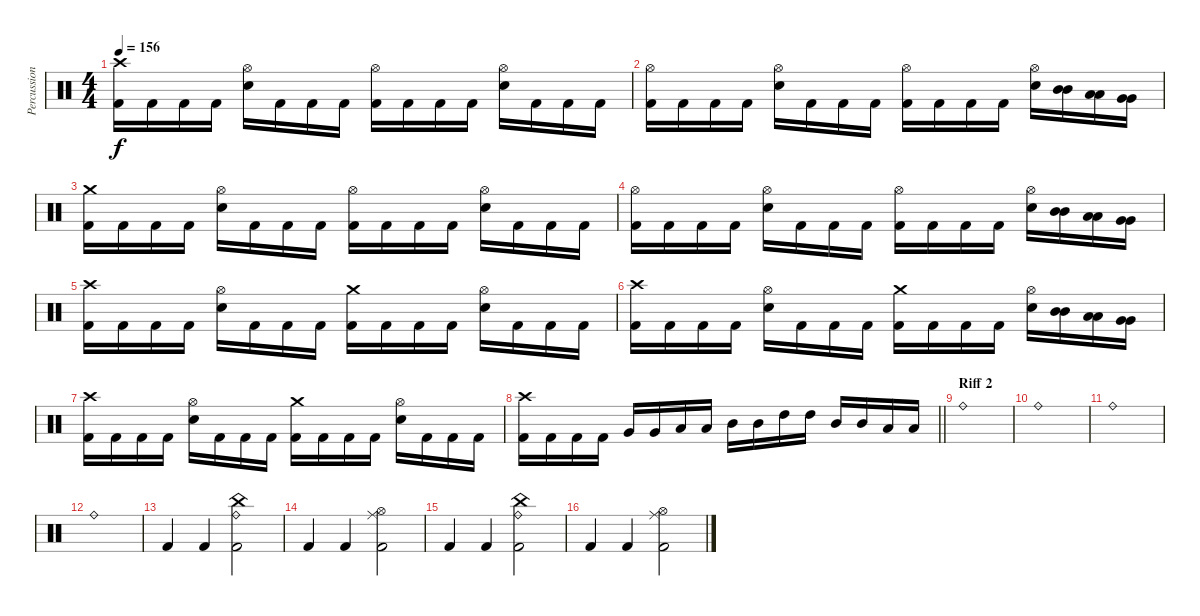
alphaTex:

\track ("Percussion" "Percussion") {instrument percussion}
\staff {score}
\articulation defaults
\ts (4 4)
\tempo 156
\clef neutral
\ks c
("Crash high (hit)" "Kick (hit) 2").16{dy f} "Kick (hit) 2".16 "Kick (hit) 2".16 "Kick (hit) 2".16 ("Hi-Hat (open)" "Snare (hit) 2").16 "Kick (hit) 2".16 "Kick (hit) 2".16 "Kick (hit) 2".16 ("Hi-Hat (open)" "Kick (hit) 2").16 "Kick (hit) 2".16 "Kick (hit) 2".16 "Kick (hit) 2".16 ("Hi-Hat (open)" "Snare (hit) 2").16 "Kick (hit) 2".16 "Kick (hit) 2".16 "Kick (hit) 2".16 |
("Hi-Hat (open)" "Kick (hit) 2").16 "Kick (hit) 2".16 "Kick (hit) 2".16 "Kick (hit) 2".16 ("Hi-Hat (open)" "Snare (hit) 2").16 "Kick (hit) 2".16 "Kick (hit) 2".16 "Kick (hit) 2".16 ("Hi-Hat (open)" "Kick (hit) 2").16 "Kick (hit) 2".16 "Kick (hit) 2".16 "Kick (hit) 2".16 ("Hi-Hat (open)" "Snare (hit) 2").16 ("Mid Tom (hit)" "Mid Tom (hit)").16 ("Low Tom (hit)" "Low Tom (hit)").16 ("Very Low Tom (hit)" "Very Low Tom (hit)").16 |
("Crash medium (hit)" "Kick (hit) 2").16 "Kick (hit) 2".16 "Kick (hit) 2".16 "Kick (hit) 2".16 ("Hi-Hat (open)" "Snare (hit) 2").16 "Kick (hit) 2".16 "Kick (hit) 2".16 "Kick (hit) 2".16 ("Hi-Hat (open)" "Kick (hit) 2").16 "Kick (hit) 2".16 "Kick (hit) 2".16 "Kick (hit) 2".16 ("Hi-Hat (open)" "Snare (hit) 2").16 "Kick (hit) 2".16 "Kick (hit) 2".16 "Kick (hit) 2".16 |
("Hi-Hat (open)" "Kick (hit) 2").16 "Kick (hit) 2".16 "Kick (hit) 2".16 "Kick (hit) 2".16 ("Hi-Hat (open)" "Snare (hit) 2").16 "Kick (hit) 2".16 "Kick (hit) 2".16 "Kick (hit) 2".16 ("Hi-Hat (open)" "Kick (hit) 2").16 "Kick (hit) 2".16 "Kick (hit) 2".16 "Kick (hit) 2".16 ("Hi-Hat (open)" "Snare (hit) 2").16 ("Mid Tom (hit)" "Mid Tom (hit)").16 ("Low Tom (hit)" "Low Tom (hit)").16 ("Very Low Tom (hit)" "Very Low Tom (hit)").16 |
("Crash high (hit)" "Kick (hit) 2").16 "Kick (hit) 2".16 "Kick (hit) 2".16 "Kick (hit) 2".16 ("Hi-Hat (open)" "Snare (hit) 2").16 "Kick (hit) 2".16 "Kick (hit) 2".16 "Kick (hit) 2".16 ("Crash medium (hit)" "Kick (hit) 2").16 "Kick (hit) 2".16 "Kick (hit) 2".16 "Kick (hit) 2".16 ("Hi-Hat (open)" "Snare (hit) 2").16 "Kick (hit) 2".16 "Kick (hit) 2".16 "Kick (hit) 2".16 |
("Crash high (hit)" "Kick (hit) 2").16 "Kick (hit) 2".16 "Kick (hit) 2".16 "Kick (hit) 2".16 ("Hi-Hat (open)" "Snare (hit) 2").16 "Kick (hit) 2".16 "Kick (hit) 2".16 "Kick (hit) 2".16 ("Crash medium (hit)" "Kick (hit) 2").16 "Kick (hit) 2".16 "Kick (hit) 2".16 "Kick (hit) 2".16 ("Hi-Hat (open)" "Snare (hit) 2").16 ("Mid Tom (hit)" "Mid Tom (hit)").16 ("Low Tom (hit)" "Low Tom (hit)").16 ("Very Low Tom (hit)" "Very Low Tom (hit)").16 |
("Crash high (hit)" "Kick (hit) 2").16 "Kick (hit) 2".16 "Kick (hit) 2".16 "Kick (hit) 2".16 ("Hi-Hat (open)" "Snare (hit) 2").16 "Kick (hit) 2".16 "Kick (hit) 2".16 "Kick (hit) 2".16 ("Crash medium (hit)" "Kick (hit) 2").16 "Kick (hit) 2".16 "Kick (hit) 2".16 "Kick (hit) 2".16 ("Hi-Hat (open)" "Snare (hit) 2").16 "Kick (hit) 2".16 "Kick (hit) 2".16 "Kick (hit) 2".16 |
\barLineRight lightlight
("Crash high (hit)" "Kick (hit) 2").16 "Kick (hit) 2".16 "Kick (hit) 2".16 "Kick (hit) 2".16 "Very Low Tom (hit)".16 "Very Low Tom (hit)".16 "Low Tom (hit)".16 "Low Tom (hit)".16 "Mid Tom (hit)".16 "Mid Tom (hit)".16 "High Tom (hit)".16 "High Tom (hit)".16 "Mid Tom (hit)".16 "Mid Tom (hit)".16 "Low Tom (hit)".16 "Low Tom (hit)".16 |
\section ("" "Riff 2")
"Ride (bell)".1 |
"Ride (bell)".1 |
"Ride (bell)".1 |
"Ride (bell)".1 |
"Kick (hit) 2".4 "Kick (hit) 2".4 ("China (hit)" "Ride (bell)" "Kick (hit) 2").2 |
"Kick (hit) 2".4 "Kick (hit) 2".4 ("Ride (middle)" "Hi-Hat (open)" "Kick (hit) 2").2 |
"Kick (hit) 2".4 "Kick (hit) 2".4 ("China (hit)" "Ride (bell)" "Kick (hit) 2").2 |
"Kick (hit) 2".4 "Kick (hit) 2".4 ("Ride (middle)" "Hi-Hat (open)" "Kick (hit) 2").2
